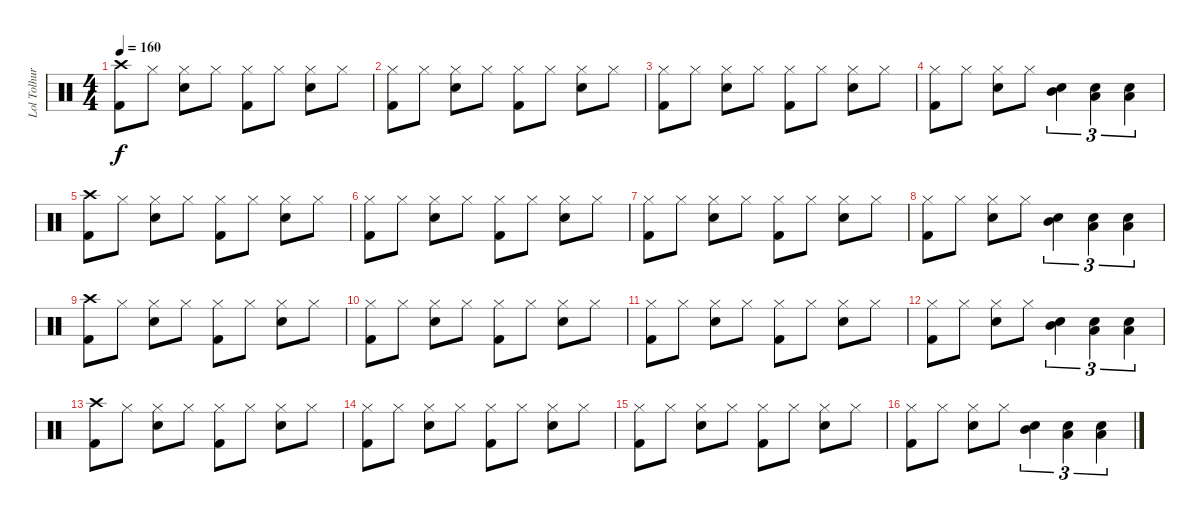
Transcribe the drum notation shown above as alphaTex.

\track ("Lol Tolhurst drums" "Lol Tolhur") {instrument percussion}
\staff {score}
\articulation defaults
\ts (4 4)
\section ("" "")
\tempo 160
\clef neutral
\ks c
("Crash high (hit)" "Kick (hit) 2").8{dy f} "Hi-Hat (closed)".8 ("Hi-Hat (closed)" "Snare (hit) 2").8 "Hi-Hat (closed)".8 ("Hi-Hat (closed)" "Kick (hit) 2").8 "Hi-Hat (closed)".8 ("Hi-Hat (closed)" "Snare (hit) 2").8 "Hi-Hat (closed)".8 |
("Hi-Hat (closed)" "Kick (hit) 2").8 "Hi-Hat (closed)".8 ("Hi-Hat (closed)" "Snare (hit) 2").8 "Hi-Hat (closed)".8 ("Hi-Hat (closed)" "Kick (hit) 2").8 "Hi-Hat (closed)".8 ("Hi-Hat (closed)" "Snare (hit) 2").8 "Hi-Hat (closed)".8 |
("Hi-Hat (closed)" "Kick (hit) 2").8 "Hi-Hat (closed)".8 ("Hi-Hat (closed)" "Snare (hit) 2").8 "Hi-Hat (closed)".8 ("Hi-Hat (closed)" "Kick (hit) 2").8 "Hi-Hat (closed)".8 ("Hi-Hat (closed)" "Snare (hit) 2").8 "Hi-Hat (closed)".8 |
("Hi-Hat (closed)" "Kick (hit) 2").8 "Hi-Hat (closed)".8 ("Hi-Hat (closed)" "Snare (hit) 2").8 "Hi-Hat (closed)".8 ("Mid Tom (hit)" "Snare (hit) 2").4{tu (3 2)} ("Low Tom (hit)" "Snare (hit) 2").4{tu (3 2)} ("Low Floor Tom (hit)" "Snare (hit) 2").4{tu (3 2)} |
("Crash high (hit)" "Kick (hit) 2").8 "Hi-Hat (closed)".8 ("Hi-Hat (closed)" "Snare (hit) 2").8 "Hi-Hat (closed)".8 ("Hi-Hat (closed)" "Kick (hit) 2").8 "Hi-Hat (closed)".8 ("Hi-Hat (closed)" "Snare (hit) 2").8 "Hi-Hat (closed)".8 |
("Hi-Hat (closed)" "Kick (hit) 2").8 "Hi-Hat (closed)".8 ("Hi-Hat (closed)" "Snare (hit) 2").8 "Hi-Hat (closed)".8 ("Hi-Hat (closed)" "Kick (hit) 2").8 "Hi-Hat (closed)".8 ("Hi-Hat (closed)" "Snare (hit) 2").8 "Hi-Hat (closed)".8 |
\section ("" "")
("Hi-Hat (closed)" "Kick (hit) 2").8 "Hi-Hat (closed)".8 ("Hi-Hat (closed)" "Snare (hit) 2").8 "Hi-Hat (closed)".8 ("Hi-Hat (closed)" "Kick (hit) 2").8 "Hi-Hat (closed)".8 ("Hi-Hat (closed)" "Snare (hit) 2").8 "Hi-Hat (closed)".8 |
("Hi-Hat (closed)" "Kick (hit) 2").8 "Hi-Hat (closed)".8 ("Hi-Hat (closed)" "Snare (hit) 2").8 "Hi-Hat (closed)".8 ("Mid Tom (hit)" "Snare (hit) 2").4{tu (3 2)} ("Low Tom (hit)" "Snare (hit) 2").4{tu (3 2)} ("Low Floor Tom (hit)" "Snare (hit) 2").4{tu (3 2)} |
("Crash high (hit)" "Kick (hit) 2").8 "Hi-Hat (closed)".8 ("Hi-Hat (closed)" "Snare (hit) 2").8 "Hi-Hat (closed)".8 ("Hi-Hat (closed)" "Kick (hit) 2").8 "Hi-Hat (closed)".8 ("Hi-Hat (closed)" "Snare (hit) 2").8 "Hi-Hat (closed)".8 |
("Hi-Hat (closed)" "Kick (hit) 2").8 "Hi-Hat (closed)".8 ("Hi-Hat (closed)" "Snare (hit) 2").8 "Hi-Hat (closed)".8 ("Hi-Hat (closed)" "Kick (hit) 2").8 "Hi-Hat (closed)".8 ("Hi-Hat (closed)" "Snare (hit) 2").8 "Hi-Hat (closed)".8 |
("Hi-Hat (closed)" "Kick (hit) 2").8 "Hi-Hat (closed)".8 ("Hi-Hat (closed)" "Snare (hit) 2").8 "Hi-Hat (closed)".8 ("Hi-Hat (closed)" "Kick (hit) 2").8 "Hi-Hat (closed)".8 ("Hi-Hat (closed)" "Snare (hit) 2").8 "Hi-Hat (closed)".8 |
("Hi-Hat (closed)" "Kick (hit) 2").8 "Hi-Hat (closed)".8 ("Hi-Hat (closed)" "Snare (hit) 2").8 "Hi-Hat (closed)".8 ("Mid Tom (hit)" "Snare (hit) 2").4{tu (3 2)} ("Low Tom (hit)" "Snare (hit) 2").4{tu (3 2)} ("Low Floor Tom (hit)" "Snare (hit) 2").4{tu (3 2)} |
("Crash high (hit)" "Kick (hit) 2").8 "Hi-Hat (closed)".8 ("Hi-Hat (closed)" "Snare (hit) 2").8 "Hi-Hat (closed)".8 ("Hi-Hat (closed)" "Kick (hit) 2").8 "Hi-Hat (closed)".8 ("Hi-Hat (closed)" "Snare (hit) 2").8 "Hi-Hat (closed)".8 |
("Hi-Hat (closed)" "Kick (hit) 2").8 "Hi-Hat (closed)".8 ("Hi-Hat (closed)" "Snare (hit) 2").8 "Hi-Hat (closed)".8 ("Hi-Hat (closed)" "Kick (hit) 2").8 "Hi-Hat (closed)".8 ("Hi-Hat (closed)" "Snare (hit) 2").8 "Hi-Hat (closed)".8 |
("Hi-Hat (closed)" "Kick (hit) 2").8 "Hi-Hat (closed)".8 ("Hi-Hat (closed)" "Snare (hit) 2").8 "Hi-Hat (closed)".8 ("Hi-Hat (closed)" "Kick (hit) 2").8 "Hi-Hat (closed)".8 ("Hi-Hat (closed)" "Snare (hit) 2").8 "Hi-Hat (closed)".8 |
("Hi-Hat (closed)" "Kick (hit) 2").8 "Hi-Hat (closed)".8 ("Hi-Hat (closed)" "Snare (hit) 2").8 "Hi-Hat (closed)".8 ("Mid Tom (hit)" "Snare (hit) 2").4{tu (3 2)} ("Low Tom (hit)" "Snare (hit) 2").4{tu (3 2)} ("Low Floor Tom (hit)" "Snare (hit) 2").4{tu (3 2)}
